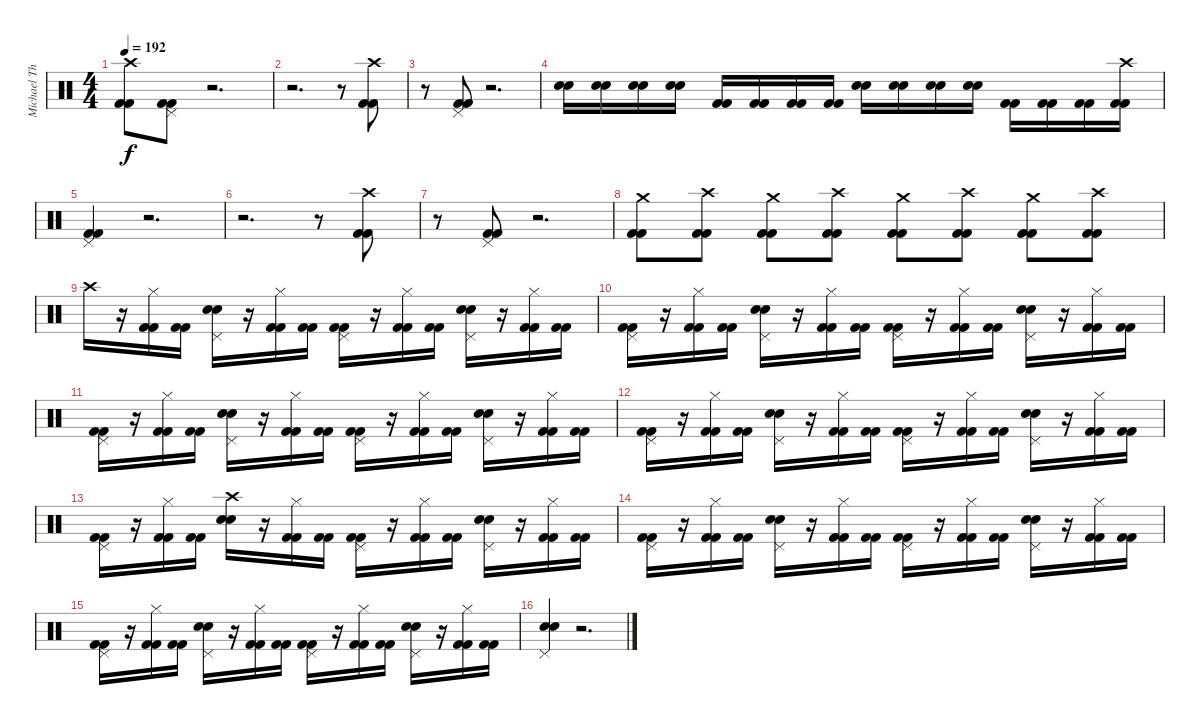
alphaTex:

\track ("Michael Thomas" "Michael Th") {instrument percussion}
\staff {score}
\articulation defaults
\ts (4 4)
\tempo 192
\clef neutral
\ks c
("Crash high (hit)" "Kick (hit) 2" "Kick (hit) 2").8{dy f} ("Pedal Hi-Hat (hit)" "Kick (hit) 2" "Kick (hit) 2").8 r.2{d} |
r.2{d} r.8 ("Crash high (hit)" "Kick (hit) 2" "Kick (hit) 2").8 |
r.8 ("Pedal Hi-Hat (hit)" "Kick (hit) 2" "Kick (hit) 2").8 r.2{d} |
("Snare (hit) 2" "Electric Snare (hit)").16 ("Snare (hit) 2" "Electric Snare (hit)").16 ("Snare (hit) 2" "Electric Snare (hit)").16 ("Snare (hit) 2" "Electric Snare (hit)").16 ("Kick (hit) 2" "Kick (hit) 2").16 ("Kick (hit) 2" "Kick (hit) 2").16 ("Kick (hit) 2" "Kick (hit) 2").16 ("Kick (hit) 2" "Kick (hit) 2").16 ("Snare (hit) 2" "Electric Snare (hit)").16 ("Snare (hit) 2" "Electric Snare (hit)").16 ("Snare (hit) 2" "Electric Snare (hit)").16 ("Snare (hit) 2" "Electric Snare (hit)").16 ("Kick (hit) 2" "Kick (hit) 2").16 ("Kick (hit) 2" "Kick (hit) 2").16 ("Kick (hit) 2" "Kick (hit) 2").16 ("Crash high (hit)" "Kick (hit) 2" "Kick (hit) 2").16 |
("Pedal Hi-Hat (hit)" "Kick (hit) 2" "Kick (hit) 2").4 r.2{d} |
r.2{d} r.8 ("Crash high (hit)" "Kick (hit) 2" "Kick (hit) 2").8 |
r.8 ("Pedal Hi-Hat (hit)" "Kick (hit) 2" "Kick (hit) 2").8 r.2{d} |
("Crash medium (hit)" "Kick (hit) 2" "Kick (hit) 2").8 ("Crash high (hit)" "Kick (hit) 2" "Kick (hit) 2").8 ("Crash medium (hit)" "Kick (hit) 2" "Kick (hit) 2").8 ("Crash high (hit)" "Kick (hit) 2" "Kick (hit) 2").8 ("Crash medium (hit)" "Kick (hit) 2" "Kick (hit) 2").8 ("Crash high (hit)" "Kick (hit) 2" "Kick (hit) 2").8 ("Crash medium (hit)" "Kick (hit) 2" "Kick (hit) 2").8 ("Crash high (hit)" "Kick (hit) 2" "Kick (hit) 2").8 |
"Crash high (hit)".16 r.16 ("Hi-Hat (closed)" "Kick (hit) 2" "Kick (hit) 2").16 ("Kick (hit) 2" "Kick (hit) 2").16 ("Pedal Hi-Hat (hit)" "Snare (hit) 2" "Electric Snare (hit)").16 r.16 ("Hi-Hat (closed)" "Kick (hit) 2" "Kick (hit) 2").16 ("Kick (hit) 2" "Kick (hit) 2").16 ("Pedal Hi-Hat (hit)" "Kick (hit) 2" "Kick (hit) 2").16 r.16 ("Hi-Hat (closed)" "Kick (hit) 2" "Kick (hit) 2").16 ("Kick (hit) 2" "Kick (hit) 2").16 ("Pedal Hi-Hat (hit)" "Snare (hit) 2" "Electric Snare (hit)").16 r.16 ("Hi-Hat (closed)" "Kick (hit) 2" "Kick (hit) 2").16 ("Kick (hit) 2" "Kick (hit) 2").16 |
("Pedal Hi-Hat (hit)" "Kick (hit) 2" "Kick (hit) 2").16 r.16 ("Hi-Hat (closed)" "Kick (hit) 2" "Kick (hit) 2").16 ("Kick (hit) 2" "Kick (hit) 2").16 ("Pedal Hi-Hat (hit)" "Snare (hit) 2" "Electric Snare (hit)").16 r.16 ("Hi-Hat (closed)" "Kick (hit) 2" "Kick (hit) 2").16 ("Kick (hit) 2" "Kick (hit) 2").16 ("Pedal Hi-Hat (hit)" "Kick (hit) 2" "Kick (hit) 2").16 r.16 ("Hi-Hat (closed)" "Kick (hit) 2" "Kick (hit) 2").16 ("Kick (hit) 2" "Kick (hit) 2").16 ("Pedal Hi-Hat (hit)" "Snare (hit) 2" "Electric Snare (hit)").16 r.16 ("Hi-Hat (closed)" "Kick (hit) 2" "Kick (hit) 2").16 ("Kick (hit) 2" "Kick (hit) 2").16 |
("Pedal Hi-Hat (hit)" "Kick (hit) 2" "Kick (hit) 2").16 r.16 ("Hi-Hat (closed)" "Kick (hit) 2" "Kick (hit) 2").16 ("Kick (hit) 2" "Kick (hit) 2").16 ("Pedal Hi-Hat (hit)" "Snare (hit) 2" "Electric Snare (hit)").16 r.16 ("Hi-Hat (closed)" "Kick (hit) 2" "Kick (hit) 2").16 ("Kick (hit) 2" "Kick (hit) 2").16 ("Pedal Hi-Hat (hit)" "Kick (hit) 2" "Kick (hit) 2").16 r.16 ("Hi-Hat (closed)" "Kick (hit) 2" "Kick (hit) 2").16 ("Kick (hit) 2" "Kick (hit) 2").16 ("Pedal Hi-Hat (hit)" "Snare (hit) 2" "Electric Snare (hit)").16 r.16 ("Hi-Hat (closed)" "Kick (hit) 2" "Kick (hit) 2").16 ("Kick (hit) 2" "Kick (hit) 2").16 |
("Pedal Hi-Hat (hit)" "Kick (hit) 2" "Kick (hit) 2").16 r.16 ("Hi-Hat (closed)" "Kick (hit) 2" "Kick (hit) 2").16 ("Kick (hit) 2" "Kick (hit) 2").16 ("Pedal Hi-Hat (hit)" "Snare (hit) 2" "Electric Snare (hit)").16 r.16 ("Hi-Hat (closed)" "Kick (hit) 2" "Kick (hit) 2").16 ("Kick (hit) 2" "Kick (hit) 2").16 ("Pedal Hi-Hat (hit)" "Kick (hit) 2" "Kick (hit) 2").16 r.16 ("Hi-Hat (closed)" "Kick (hit) 2" "Kick (hit) 2").16 ("Kick (hit) 2" "Kick (hit) 2").16 ("Pedal Hi-Hat (hit)" "Snare (hit) 2" "Electric Snare (hit)").16 r.16 ("Hi-Hat (closed)" "Kick (hit) 2" "Kick (hit) 2").16 ("Kick (hit) 2" "Kick (hit) 2").16 |
("Pedal Hi-Hat (hit)" "Kick (hit) 2" "Kick (hit) 2").16 r.16 ("Hi-Hat (closed)" "Kick (hit) 2" "Kick (hit) 2").16 ("Kick (hit) 2" "Kick (hit) 2").16 ("Crash high (hit)" "Snare (hit) 2" "Electric Snare (hit)").16 r.16 ("Hi-Hat (closed)" "Kick (hit) 2" "Kick (hit) 2").16 ("Kick (hit) 2" "Kick (hit) 2").16 ("Pedal Hi-Hat (hit)" "Kick (hit) 2" "Kick (hit) 2").16 r.16 ("Hi-Hat (closed)" "Kick (hit) 2" "Kick (hit) 2").16 ("Kick (hit) 2" "Kick (hit) 2").16 ("Pedal Hi-Hat (hit)" "Snare (hit) 2" "Electric Snare (hit)").16 r.16 ("Hi-Hat (closed)" "Kick (hit) 2" "Kick (hit) 2").16 ("Kick (hit) 2" "Kick (hit) 2").16 |
("Pedal Hi-Hat (hit)" "Kick (hit) 2" "Kick (hit) 2").16 r.16 ("Hi-Hat (closed)" "Kick (hit) 2" "Kick (hit) 2").16 ("Kick (hit) 2" "Kick (hit) 2").16 ("Pedal Hi-Hat (hit)" "Snare (hit) 2" "Electric Snare (hit)").16 r.16 ("Hi-Hat (closed)" "Kick (hit) 2" "Kick (hit) 2").16 ("Kick (hit) 2" "Kick (hit) 2").16 ("Pedal Hi-Hat (hit)" "Kick (hit) 2" "Kick (hit) 2").16 r.16 ("Hi-Hat (closed)" "Kick (hit) 2" "Kick (hit) 2").16 ("Kick (hit) 2" "Kick (hit) 2").16 ("Pedal Hi-Hat (hit)" "Snare (hit) 2" "Electric Snare (hit)").16 r.16 ("Hi-Hat (closed)" "Kick (hit) 2" "Kick (hit) 2").16 ("Kick (hit) 2" "Kick (hit) 2").16 |
("Pedal Hi-Hat (hit)" "Kick (hit) 2" "Kick (hit) 2").16 r.16 ("Hi-Hat (closed)" "Kick (hit) 2" "Kick (hit) 2").16 ("Kick (hit) 2" "Kick (hit) 2").16 ("Pedal Hi-Hat (hit)" "Snare (hit) 2" "Electric Snare (hit)").16 r.16 ("Hi-Hat (closed)" "Kick (hit) 2" "Kick (hit) 2").16 ("Kick (hit) 2" "Kick (hit) 2").16 ("Pedal Hi-Hat (hit)" "Kick (hit) 2" "Kick (hit) 2").16 r.16 ("Hi-Hat (closed)" "Kick (hit) 2" "Kick (hit) 2").16 ("Kick (hit) 2" "Kick (hit) 2").16 ("Pedal Hi-Hat (hit)" "Snare (hit) 2" "Electric Snare (hit)").16 r.16 ("Hi-Hat (closed)" "Kick (hit) 2" "Kick (hit) 2").16 ("Kick (hit) 2" "Kick (hit) 2").16 |
("Pedal Hi-Hat (hit)" "Snare (hit) 2" "Electric Snare (hit)").4 r.2{d}
